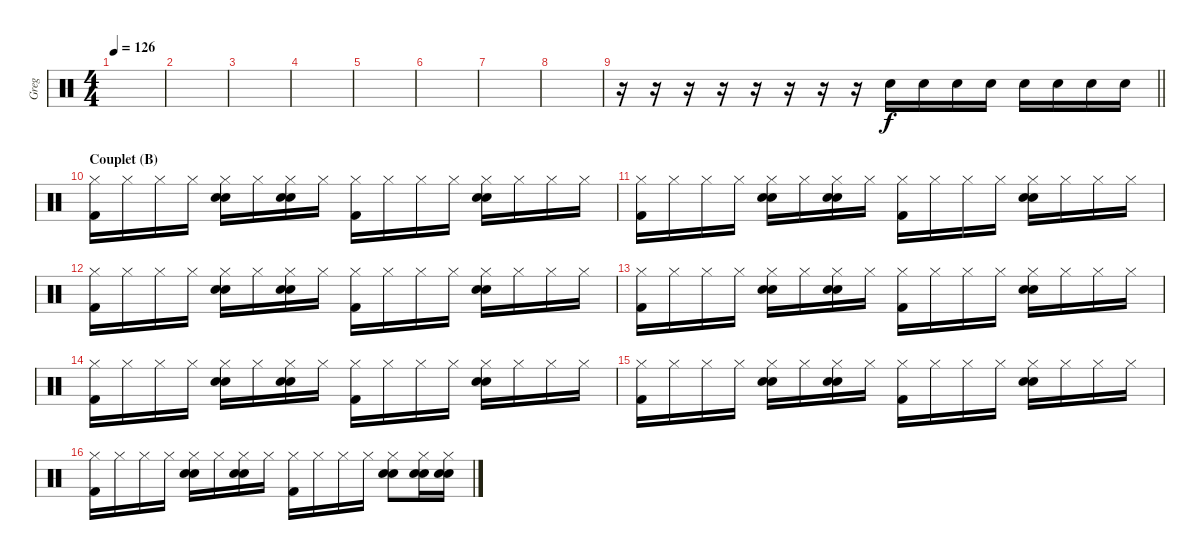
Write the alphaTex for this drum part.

\track ("Greg" "Greg") {instrument percussion}
\staff {score}
\articulation defaults
\ts (4 4)
\tempo 126
\clef neutral
\ks c
|
|
|
|
|
|
|
|
\barLineRight lightlight
r.16 r.16 r.16 r.16 r.16 r.16 r.16 r.16 "Electric Snare (hit)".16 "Electric Snare (hit)".16 "Electric Snare (hit)".16 "Electric Snare (hit)".16 "Electric Snare (hit)".16 "Electric Snare (hit)".16 "Electric Snare (hit)".16 "Electric Snare (hit)".16 |
\section ("" "Couplet (B)")
("Hi-Hat (closed)" "Kick (hit) 2").16 "Hi-Hat (closed)".16 "Hi-Hat (closed)".16 "Hi-Hat (closed)".16 ("Hi-Hat (closed)" "Snare (hit) 2" "Electric Snare (hit)").16 "Hi-Hat (closed)".16 ("Hi-Hat (closed)" "Snare (hit) 2" "Electric Snare (hit)").16 "Hi-Hat (closed)".16 ("Hi-Hat (closed)" "Kick (hit) 2").16 "Hi-Hat (closed)".16 "Hi-Hat (closed)".16 "Hi-Hat (closed)".16 ("Hi-Hat (closed)" "Snare (hit) 2" "Electric Snare (hit)").16 "Hi-Hat (closed)".16 "Hi-Hat (closed)".16 "Hi-Hat (closed)".16 |
("Hi-Hat (closed)" "Kick (hit) 2").16 "Hi-Hat (closed)".16 "Hi-Hat (closed)".16 "Hi-Hat (closed)".16 ("Hi-Hat (closed)" "Snare (hit) 2" "Electric Snare (hit)").16 "Hi-Hat (closed)".16 ("Hi-Hat (closed)" "Snare (hit) 2" "Electric Snare (hit)").16 "Hi-Hat (closed)".16 ("Hi-Hat (closed)" "Kick (hit) 2").16 "Hi-Hat (closed)".16 "Hi-Hat (closed)".16 "Hi-Hat (closed)".16 ("Hi-Hat (closed)" "Snare (hit) 2" "Electric Snare (hit)").16 "Hi-Hat (closed)".16 "Hi-Hat (closed)".16 "Hi-Hat (closed)".16 |
("Hi-Hat (closed)" "Kick (hit) 2").16 "Hi-Hat (closed)".16 "Hi-Hat (closed)".16 "Hi-Hat (closed)".16 ("Hi-Hat (closed)" "Snare (hit) 2" "Electric Snare (hit)").16 "Hi-Hat (closed)".16 ("Hi-Hat (closed)" "Snare (hit) 2" "Electric Snare (hit)").16 "Hi-Hat (closed)".16 ("Hi-Hat (closed)" "Kick (hit) 2").16 "Hi-Hat (closed)".16 "Hi-Hat (closed)".16 "Hi-Hat (closed)".16 ("Hi-Hat (closed)" "Snare (hit) 2" "Electric Snare (hit)").16 "Hi-Hat (closed)".16 "Hi-Hat (closed)".16 "Hi-Hat (closed)".16 |
("Hi-Hat (closed)" "Kick (hit) 2").16 "Hi-Hat (closed)".16 "Hi-Hat (closed)".16 "Hi-Hat (closed)".16 ("Hi-Hat (closed)" "Snare (hit) 2" "Electric Snare (hit)").16 "Hi-Hat (closed)".16 ("Hi-Hat (closed)" "Snare (hit) 2" "Electric Snare (hit)").16 "Hi-Hat (closed)".16 ("Hi-Hat (closed)" "Kick (hit) 2").16 "Hi-Hat (closed)".16 "Hi-Hat (closed)".16 "Hi-Hat (closed)".16 ("Hi-Hat (closed)" "Snare (hit) 2" "Electric Snare (hit)").16 "Hi-Hat (closed)".16 "Hi-Hat (closed)".16 "Hi-Hat (closed)".16 |
("Hi-Hat (closed)" "Kick (hit) 2").16 "Hi-Hat (closed)".16 "Hi-Hat (closed)".16 "Hi-Hat (closed)".16 ("Hi-Hat (closed)" "Snare (hit) 2" "Electric Snare (hit)").16 "Hi-Hat (closed)".16 ("Hi-Hat (closed)" "Snare (hit) 2" "Electric Snare (hit)").16 "Hi-Hat (closed)".16 ("Hi-Hat (closed)" "Kick (hit) 2").16 "Hi-Hat (closed)".16 "Hi-Hat (closed)".16 "Hi-Hat (closed)".16 ("Hi-Hat (closed)" "Snare (hit) 2" "Electric Snare (hit)").16 "Hi-Hat (closed)".16 "Hi-Hat (closed)".16 "Hi-Hat (closed)".16 |
("Hi-Hat (closed)" "Kick (hit) 2").16 "Hi-Hat (closed)".16 "Hi-Hat (closed)".16 "Hi-Hat (closed)".16 ("Hi-Hat (closed)" "Snare (hit) 2" "Electric Snare (hit)").16 "Hi-Hat (closed)".16 ("Hi-Hat (closed)" "Snare (hit) 2" "Electric Snare (hit)").16 "Hi-Hat (closed)".16 ("Hi-Hat (closed)" "Kick (hit) 2").16 "Hi-Hat (closed)".16 "Hi-Hat (closed)".16 "Hi-Hat (closed)".16 ("Hi-Hat (closed)" "Snare (hit) 2" "Electric Snare (hit)").16 "Hi-Hat (closed)".16 "Hi-Hat (closed)".16 "Hi-Hat (closed)".16 |
("Hi-Hat (closed)" "Kick (hit) 2").16 "Hi-Hat (closed)".16 "Hi-Hat (closed)".16 "Hi-Hat (closed)".16 ("Hi-Hat (closed)" "Snare (hit) 2" "Electric Snare (hit)").16 "Hi-Hat (closed)".16 ("Hi-Hat (closed)" "Snare (hit) 2" "Electric Snare (hit)").16 "Hi-Hat (closed)".16 ("Hi-Hat (closed)" "Kick (hit) 2").16 "Hi-Hat (closed)".16 "Hi-Hat (closed)".16 "Hi-Hat (closed)".16 ("Hi-Hat (closed)" "Snare (hit) 2" "Electric Snare (hit)").8 ("Hi-Hat (closed)" "Snare (hit) 2" "Electric Snare (hit)").16 ("Hi-Hat (closed)" "Snare (hit) 2" "Electric Snare (hit)").16
